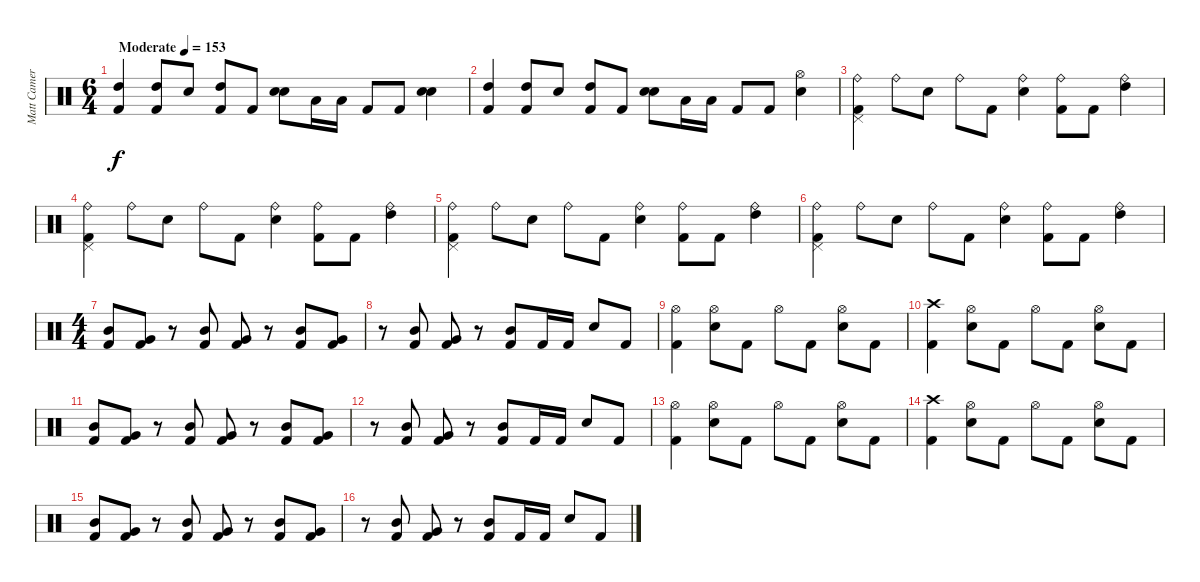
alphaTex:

\track ("Matt Cameron" "Matt Camer") {instrument percussion}
\staff {score}
\articulation defaults
\ts (6 4)
\tempo (153 "Moderate")
\clef neutral
\ks c
("High Tom (hit)" "Kick (hit) 2").4{dy f} ("High Tom (hit)" "Kick (hit) 2").8 "Electric Snare (hit)".8 ("High Tom (hit)" "Kick (hit) 2").8 "Kick (hit) 2".8 ("Electric Snare (hit)" "Electric Snare (hit)").8 "Low Tom (hit)".16 "Low Tom (hit)".16 "Kick (hit) 2".8 "Kick (hit) 2".8 ("Electric Snare (hit)" "Electric Snare (hit)").4 |
("High Tom (hit)" "Kick (hit) 2").4 ("High Tom (hit)" "Kick (hit) 2").8 "Electric Snare (hit)".8 ("High Tom (hit)" "Kick (hit) 2").8 "Kick (hit) 2".8 ("Electric Snare (hit)" "Electric Snare (hit)").8 "Low Tom (hit)".16 "Low Tom (hit)".16 "Kick (hit) 2".8 "Kick (hit) 2".8 ("Hi-Hat (open)" "Electric Snare (hit)").4 |
("Pedal Hi-Hat (hit)" "Ride (bell)" "Kick (hit) 2").4 "Ride (bell)".8 "Electric Snare (hit)".8 "Ride (bell)".8 "Kick (hit) 2".8 ("Ride (bell)" "Electric Snare (hit)").4 ("Ride (bell)" "Kick (hit) 2").8 "Kick (hit) 2".8 ("Ride (bell)" "High Tom (hit)").4 |
("Pedal Hi-Hat (hit)" "Ride (bell)" "Kick (hit) 2").4 "Ride (bell)".8 "Electric Snare (hit)".8 "Ride (bell)".8 "Kick (hit) 2".8 ("Ride (bell)" "Electric Snare (hit)").4 ("Ride (bell)" "Kick (hit) 2").8 "Kick (hit) 2".8 ("Ride (bell)" "High Tom (hit)").4 |
("Pedal Hi-Hat (hit)" "Ride (bell)" "Kick (hit) 2").4 "Ride (bell)".8 "Electric Snare (hit)".8 "Ride (bell)".8 "Kick (hit) 2".8 ("Ride (bell)" "Electric Snare (hit)").4 ("Ride (bell)" "Kick (hit) 2").8 "Kick (hit) 2".8 ("Ride (bell)" "High Tom (hit)").4 |
("Pedal Hi-Hat (hit)" "Ride (bell)" "Kick (hit) 2").4 "Ride (bell)".8 "Electric Snare (hit)".8 "Ride (bell)".8 "Kick (hit) 2".8 ("Ride (bell)" "Electric Snare (hit)").4 ("Ride (bell)" "Kick (hit) 2").8 "Kick (hit) 2".8 ("Ride (bell)" "High Tom (hit)").4 |
\ts (4 4)
("Mid Tom (hit)" "Kick (hit) 2").8 ("Very Low Tom (hit)" "Kick (hit) 2").8 r.8 ("Mid Tom (hit)" "Kick (hit) 2").8 ("Very Low Tom (hit)" "Kick (hit) 2").8 r.8 ("Mid Tom (hit)" "Kick (hit) 2").8 ("Very Low Tom (hit)" "Kick (hit) 2").8 |
r.8 ("Mid Tom (hit)" "Kick (hit) 2").8 ("Very Low Tom (hit)" "Kick (hit) 2").8 r.8 ("Mid Tom (hit)" "Kick (hit) 2").8 "Kick (hit) 2".16 "Kick (hit) 2".16 "Electric Snare (hit)".8 "Kick (hit) 2".8 |
("Hi-Hat (open)" "Kick (hit) 2").4 ("Hi-Hat (open)" "Electric Snare (hit)").8 "Kick (hit) 2".8 "Hi-Hat (open)".8 "Kick (hit) 2".8 ("Hi-Hat (open)" "Electric Snare (hit)").8 "Kick (hit) 2".8 |
("Crash high (hit)" "Kick (hit) 2").4 ("Hi-Hat (open)" "Electric Snare (hit)").8 "Kick (hit) 2".8 "Hi-Hat (open)".8 "Kick (hit) 2".8 ("Hi-Hat (open)" "Electric Snare (hit)").8 "Kick (hit) 2".8 |
("Mid Tom (hit)" "Kick (hit) 2").8 ("Very Low Tom (hit)" "Kick (hit) 2").8 r.8 ("Mid Tom (hit)" "Kick (hit) 2").8 ("Very Low Tom (hit)" "Kick (hit) 2").8 r.8 ("Mid Tom (hit)" "Kick (hit) 2").8 ("Very Low Tom (hit)" "Kick (hit) 2").8 |
r.8 ("Mid Tom (hit)" "Kick (hit) 2").8 ("Very Low Tom (hit)" "Kick (hit) 2").8 r.8 ("Mid Tom (hit)" "Kick (hit) 2").8 "Kick (hit) 2".16 "Kick (hit) 2".16 "Electric Snare (hit)".8 "Kick (hit) 2".8 |
("Hi-Hat (open)" "Kick (hit) 2").4 ("Hi-Hat (open)" "Electric Snare (hit)").8 "Kick (hit) 2".8 "Hi-Hat (open)".8 "Kick (hit) 2".8 ("Hi-Hat (open)" "Electric Snare (hit)").8 "Kick (hit) 2".8 |
("Crash high (hit)" "Kick (hit) 2").4 ("Hi-Hat (open)" "Electric Snare (hit)").8 "Kick (hit) 2".8 "Hi-Hat (open)".8 "Kick (hit) 2".8 ("Hi-Hat (open)" "Electric Snare (hit)").8 "Kick (hit) 2".8 |
("Mid Tom (hit)" "Kick (hit) 2").8 ("Very Low Tom (hit)" "Kick (hit) 2").8 r.8 ("Mid Tom (hit)" "Kick (hit) 2").8 ("Very Low Tom (hit)" "Kick (hit) 2").8 r.8 ("Mid Tom (hit)" "Kick (hit) 2").8 ("Very Low Tom (hit)" "Kick (hit) 2").8 |
r.8 ("Mid Tom (hit)" "Kick (hit) 2").8 ("Very Low Tom (hit)" "Kick (hit) 2").8 r.8 ("Mid Tom (hit)" "Kick (hit) 2").8 "Kick (hit) 2".16 "Kick (hit) 2".16 "Electric Snare (hit)".8 "Kick (hit) 2".8
